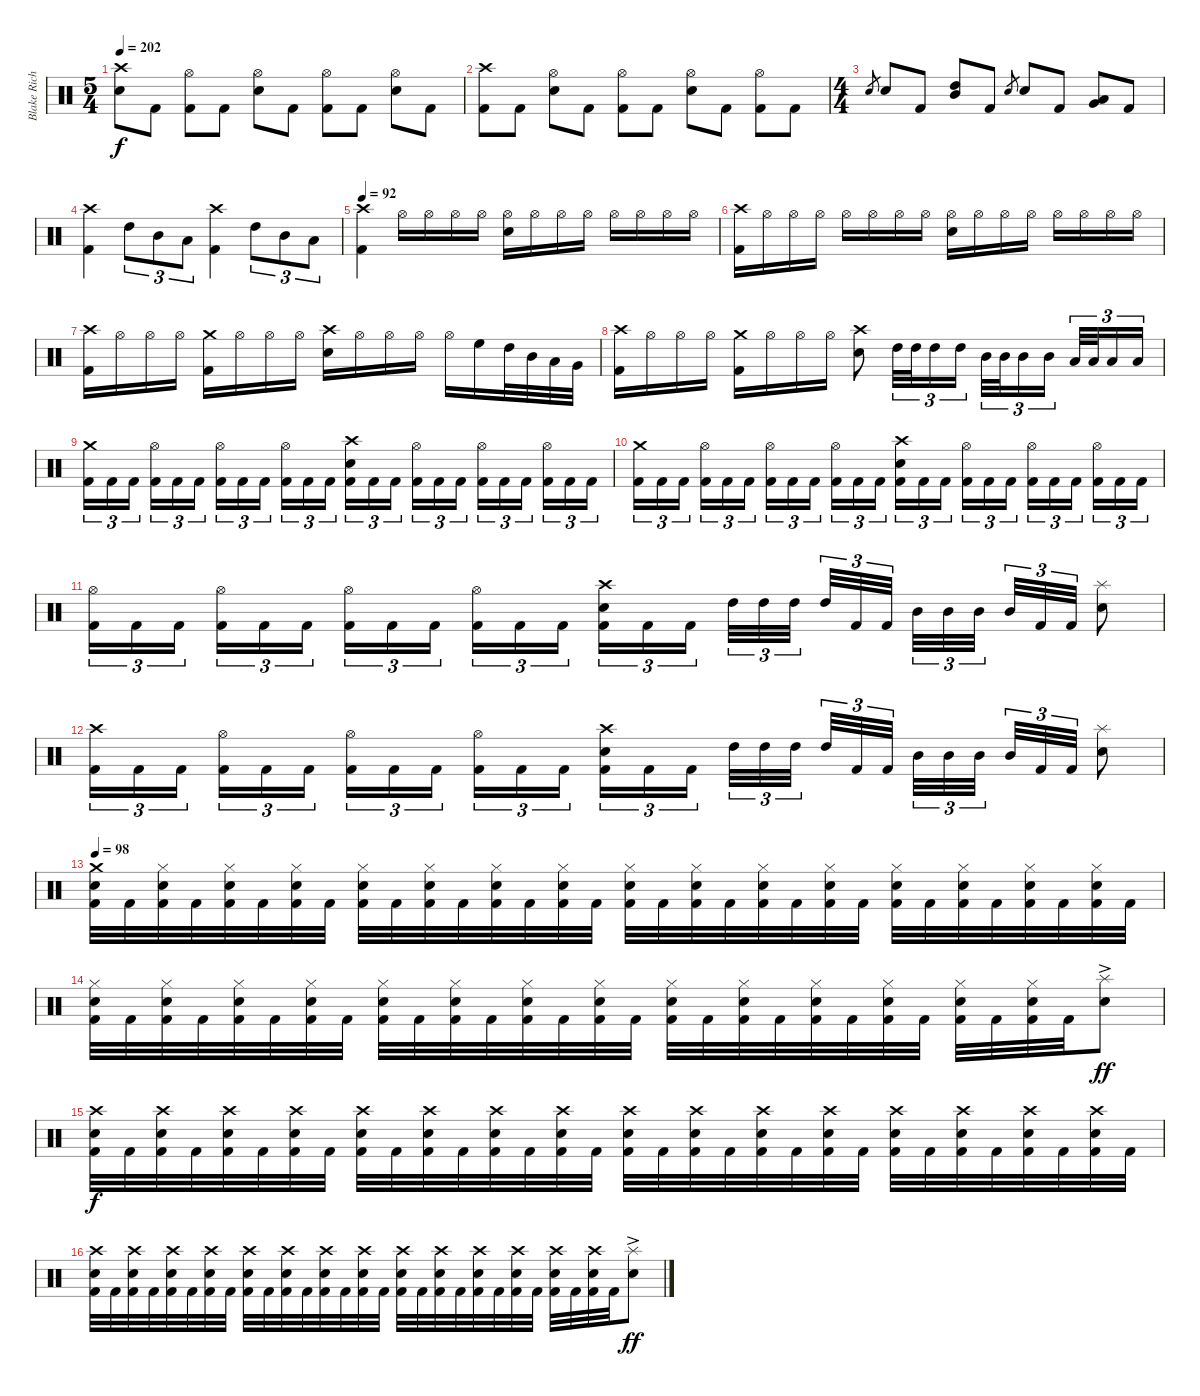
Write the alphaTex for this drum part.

\track ("Blake Richardson" "Blake Rich") {instrument percussion}
\staff {score}
\articulation defaults
\ts (5 4)
\tempo 202
\clef neutral
\ks c
("Crash high (hit)" "Electric Snare (hit)").8{dy f} "Kick (hit) 2".8{beam split} ("Hi-Hat (open)" "Kick (hit) 2").8 "Kick (hit) 2".8{beam split} ("Hi-Hat (open)" "Electric Snare (hit)").8 "Kick (hit) 2".8 ("Hi-Hat (open)" "Kick (hit) 2").8 "Kick (hit) 2".8{beam split} ("Hi-Hat (open)" "Electric Snare (hit)").8 "Kick (hit) 2".8 |
("Crash high (hit)" "Kick (hit) 2").8 "Kick (hit) 2".8{beam split} ("Hi-Hat (open)" "Electric Snare (hit)").8 "Kick (hit) 2".8{beam split} ("Hi-Hat (open)" "Kick (hit) 2").8 "Kick (hit) 2".8 ("Hi-Hat (open)" "Electric Snare (hit)").8 "Kick (hit) 2".8{beam split} ("Hi-Hat (open)" "Kick (hit) 2").8 "Kick (hit) 2".8 |
\ts (4 4)
"Electric Snare (hit)".8{gr} "Electric Snare (hit)".8 "Kick (hit) 2".8 ("High Tom (hit)" "Mid Tom (hit)").8 "Kick (hit) 2".8 "Electric Snare (hit)".8{gr} "Electric Snare (hit)".8 "Kick (hit) 2".8 ("Low Tom (hit)" "Very Low Tom (hit)").8 "Kick (hit) 2".8 |
("Crash high (hit)" "Kick (hit) 2").4 "High Tom (hit)".8{tu (3 2)} "Mid Tom (hit)".8{tu (3 2)} "Low Tom (hit)".8{tu (3 2)} ("Crash high (hit)" "Kick (hit) 2").4 "High Tom (hit)".8{tu (3 2)} "Mid Tom (hit)".8{tu (3 2)} "Low Tom (hit)".8{tu (3 2)} |
\tempo 92
("Crash high (hit)" "Kick (hit) 2").4 "Hi-Hat (open)".16 "Hi-Hat (open)".16 "Hi-Hat (open)".16 "Hi-Hat (open)".16 ("Hi-Hat (open)" "Electric Snare (hit)").16 "Hi-Hat (open)".16 "Hi-Hat (open)".16 "Hi-Hat (open)".16 "Hi-Hat (open)".16 "Hi-Hat (open)".16 "Hi-Hat (open)".16 "Hi-Hat (open)".16 |
("Crash high (hit)" "Kick (hit) 2").16 "Hi-Hat (open)".16 "Hi-Hat (open)".16 "Hi-Hat (open)".16 "Hi-Hat (open)".16 "Hi-Hat (open)".16 "Hi-Hat (open)".16 "Hi-Hat (open)".16 ("Hi-Hat (open)" "Electric Snare (hit)").16 "Hi-Hat (open)".16 "Hi-Hat (open)".16 "Hi-Hat (open)".16 "Hi-Hat (open)".16 "Hi-Hat (open)".16 "Hi-Hat (open)".16 "Hi-Hat (open)".16 |
("Crash high (hit)" "Kick (hit) 2").16 "Hi-Hat (open)".16 "Hi-Hat (open)".16 "Hi-Hat (open)".16 ("Crash medium (hit)" "Kick (hit) 2").16 "Hi-Hat (open)".16 "Hi-Hat (open)".16 "Hi-Hat (open)".16 ("Crash high (hit)" "Electric Snare (hit)").16 "Hi-Hat (open)".16 "Hi-Hat (open)".16 "Hi-Hat (open)".16 "Hi-Hat (open)".16 "High Floor Tom (hit)".16 "High Tom (hit)".32 "Mid Tom (hit)".32 "Low Tom (hit)".32 "Very Low Tom (hit)".32 |
("Crash high (hit)" "Kick (hit) 2").16 "Hi-Hat (open)".16 "Hi-Hat (open)".16 "Hi-Hat (open)".16 ("Crash medium (hit)" "Kick (hit) 2").16 "Hi-Hat (open)".16 "Hi-Hat (open)".16 "Hi-Hat (open)".16 ("Crash high (hit)" "Electric Snare (hit)").8 "High Tom (hit)".32{tu (3 2)} "High Tom (hit)".32{tu (3 2)} "High Tom (hit)".16{tu (3 2)} "High Tom (hit)".16{tu (3 2)} "Mid Tom (hit)".32{tu (3 2)} "Mid Tom (hit)".32{tu (3 2)} "Mid Tom (hit)".16{tu (3 2)} "Mid Tom (hit)".16{tu (3 2) beam splitsecondary} "Low Tom (hit)".32{tu (3 2)} "Low Tom (hit)".32{tu (3 2)} "Low Tom (hit)".16{tu (3 2)} "Low Tom (hit)".16{tu (3 2)} |
("Crash medium (hit)" "Kick (hit) 2").16{tu (3 2)} "Kick (hit) 2".16{tu (3 2)} "Kick (hit) 2".16{tu (3 2) beam splitsecondary} ("Hi-Hat (open)" "Kick (hit) 2").16{tu (3 2)} "Kick (hit) 2".16{tu (3 2)} "Kick (hit) 2".16{tu (3 2)} ("Hi-Hat (open)" "Kick (hit) 2").16{tu (3 2)} "Kick (hit) 2".16{tu (3 2)} "Kick (hit) 2".16{tu (3 2) beam splitsecondary} ("Hi-Hat (open)" "Kick (hit) 2").16{tu (3 2)} "Kick (hit) 2".16{tu (3 2)} "Kick (hit) 2".16{tu (3 2)} ("Crash high (hit)" "Electric Snare (hit)" "Kick (hit) 2").16{tu (3 2)} "Kick (hit) 2".16{tu (3 2)} "Kick (hit) 2".16{tu (3 2) beam splitsecondary} ("Hi-Hat (open)" "Kick (hit) 2").16{tu (3 2)} "Kick (hit) 2".16{tu (3 2)} "Kick (hit) 2".16{tu (3 2)} ("Hi-Hat (open)" "Kick (hit) 2").16{tu (3 2)} "Kick (hit) 2".16{tu (3 2)} "Kick (hit) 2".16{tu (3 2) beam splitsecondary} ("Hi-Hat (open)" "Kick (hit) 2").16{tu (3 2)} "Kick (hit) 2".16{tu (3 2)} "Kick (hit) 2".16{tu (3 2)} |
("Crash medium (hit)" "Kick (hit) 2").16{tu (3 2)} "Kick (hit) 2".16{tu (3 2)} "Kick (hit) 2".16{tu (3 2) beam splitsecondary} ("Hi-Hat (open)" "Kick (hit) 2").16{tu (3 2)} "Kick (hit) 2".16{tu (3 2)} "Kick (hit) 2".16{tu (3 2)} ("Hi-Hat (open)" "Kick (hit) 2").16{tu (3 2)} "Kick (hit) 2".16{tu (3 2)} "Kick (hit) 2".16{tu (3 2) beam splitsecondary} ("Hi-Hat (open)" "Kick (hit) 2").16{tu (3 2)} "Kick (hit) 2".16{tu (3 2)} "Kick (hit) 2".16{tu (3 2)} ("Crash high (hit)" "Electric Snare (hit)" "Kick (hit) 2").16{tu (3 2)} "Kick (hit) 2".16{tu (3 2)} "Kick (hit) 2".16{tu (3 2) beam splitsecondary} ("Hi-Hat (open)" "Kick (hit) 2").16{tu (3 2)} "Kick (hit) 2".16{tu (3 2)} "Kick (hit) 2".16{tu (3 2)} ("Hi-Hat (open)" "Kick (hit) 2").16{tu (3 2)} "Kick (hit) 2".16{tu (3 2)} "Kick (hit) 2".16{tu (3 2) beam splitsecondary} ("Hi-Hat (open)" "Kick (hit) 2").16{tu (3 2)} "Kick (hit) 2".16{tu (3 2)} "Kick (hit) 2".16{tu (3 2)} |
("Hi-Hat (open)" "Kick (hit) 2").16{tu (3 2)} "Kick (hit) 2".16{tu (3 2)} "Kick (hit) 2".16{tu (3 2) beam splitsecondary} ("Hi-Hat (open)" "Kick (hit) 2").16{tu (3 2)} "Kick (hit) 2".16{tu (3 2)} "Kick (hit) 2".16{tu (3 2)} ("Hi-Hat (open)" "Kick (hit) 2").16{tu (3 2)} "Kick (hit) 2".16{tu (3 2)} "Kick (hit) 2".16{tu (3 2) beam splitsecondary} ("Hi-Hat (open)" "Kick (hit) 2").16{tu (3 2)} "Kick (hit) 2".16{tu (3 2)} "Kick (hit) 2".16{tu (3 2)} ("Crash high (hit)" "Electric Snare (hit)" "Kick (hit) 2").16{tu (3 2)} "Kick (hit) 2".16{tu (3 2)} "Kick (hit) 2".16{tu (3 2) beam splitsecondary} "High Tom (hit)".32{tu (3 2)} "High Tom (hit)".32{tu (3 2)} "High Tom (hit)".32{tu (3 2) beam splitsecondary} "High Tom (hit)".32{tu (3 2)} "Kick (hit) 2".32{tu (3 2)} "Kick (hit) 2".32{tu (3 2)} "Mid Tom (hit)".32{tu (3 2)} "Mid Tom (hit)".32{tu (3 2)} "Mid Tom (hit)".32{tu (3 2) beam splitsecondary} "Mid Tom (hit)".32{tu (3 2)} "Kick (hit) 2".32{tu (3 2)} "Kick (hit) 2".32{tu (3 2)} ("Splash (hit)" "Electric Snare (hit)").8 |
("Crash high (hit)" "Kick (hit) 2").16{tu (3 2)} "Kick (hit) 2".16{tu (3 2)} "Kick (hit) 2".16{tu (3 2) beam splitsecondary} ("Hi-Hat (open)" "Kick (hit) 2").16{tu (3 2)} "Kick (hit) 2".16{tu (3 2)} "Kick (hit) 2".16{tu (3 2)} ("Hi-Hat (open)" "Kick (hit) 2").16{tu (3 2)} "Kick (hit) 2".16{tu (3 2)} "Kick (hit) 2".16{tu (3 2) beam splitsecondary} ("Hi-Hat (open)" "Kick (hit) 2").16{tu (3 2)} "Kick (hit) 2".16{tu (3 2)} "Kick (hit) 2".16{tu (3 2)} ("Crash high (hit)" "Electric Snare (hit)" "Kick (hit) 2").16{tu (3 2)} "Kick (hit) 2".16{tu (3 2)} "Kick (hit) 2".16{tu (3 2) beam splitsecondary} "High Tom (hit)".32{tu (3 2)} "High Tom (hit)".32{tu (3 2)} "High Tom (hit)".32{tu (3 2) beam splitsecondary} "High Tom (hit)".32{tu (3 2)} "Kick (hit) 2".32{tu (3 2)} "Kick (hit) 2".32{tu (3 2)} "Mid Tom (hit)".32{tu (3 2)} "Mid Tom (hit)".32{tu (3 2)} "Mid Tom (hit)".32{tu (3 2) beam splitsecondary} "Mid Tom (hit)".32{tu (3 2)} "Kick (hit) 2".32{tu (3 2)} "Kick (hit) 2".32{tu (3 2)} ("Splash (hit)" "Electric Snare (hit)").8 |
\tempo 98
("Crash medium (hit)" "Electric Snare (hit)" "Kick (hit) 2").32 "Kick (hit) 2".32 ("Hi-Hat (closed)" "Electric Snare (hit)" "Kick (hit) 2").32 "Kick (hit) 2".32 ("Hi-Hat (closed)" "Electric Snare (hit)" "Kick (hit) 2").32 "Kick (hit) 2".32 ("Hi-Hat (closed)" "Electric Snare (hit)" "Kick (hit) 2").32 "Kick (hit) 2".32 ("Hi-Hat (closed)" "Electric Snare (hit)" "Kick (hit) 2").32 "Kick (hit) 2".32 ("Hi-Hat (closed)" "Electric Snare (hit)" "Kick (hit) 2").32 "Kick (hit) 2".32 ("Hi-Hat (closed)" "Electric Snare (hit)" "Kick (hit) 2").32 "Kick (hit) 2".32 ("Hi-Hat (closed)" "Electric Snare (hit)" "Kick (hit) 2").32 "Kick (hit) 2".32 ("Hi-Hat (closed)" "Electric Snare (hit)" "Kick (hit) 2").32 "Kick (hit) 2".32 ("Hi-Hat (closed)" "Electric Snare (hit)" "Kick (hit) 2").32 "Kick (hit) 2".32 ("Hi-Hat (closed)" "Electric Snare (hit)" "Kick (hit) 2").32 "Kick (hit) 2".32 ("Hi-Hat (closed)" "Electric Snare (hit)" "Kick (hit) 2").32 "Kick (hit) 2".32 ("Hi-Hat (closed)" "Electric Snare (hit)" "Kick (hit) 2").32 "Kick (hit) 2".32 ("Hi-Hat (closed)" "Electric Snare (hit)" "Kick (hit) 2").32 "Kick (hit) 2".32 ("Hi-Hat (closed)" "Electric Snare (hit)" "Kick (hit) 2").32 "Kick (hit) 2".32 ("Hi-Hat (closed)" "Electric Snare (hit)" "Kick (hit) 2").32 "Kick (hit) 2".32 |
("Hi-Hat (closed)" "Electric Snare (hit)" "Kick (hit) 2").32 "Kick (hit) 2".32 ("Hi-Hat (closed)" "Electric Snare (hit)" "Kick (hit) 2").32 "Kick (hit) 2".32 ("Hi-Hat (closed)" "Electric Snare (hit)" "Kick (hit) 2").32 "Kick (hit) 2".32 ("Hi-Hat (closed)" "Electric Snare (hit)" "Kick (hit) 2").32 "Kick (hit) 2".32 ("Hi-Hat (closed)" "Electric Snare (hit)" "Kick (hit) 2").32 "Kick (hit) 2".32 ("Hi-Hat (closed)" "Electric Snare (hit)" "Kick (hit) 2").32 "Kick (hit) 2".32 ("Hi-Hat (closed)" "Electric Snare (hit)" "Kick (hit) 2").32 "Kick (hit) 2".32 ("Hi-Hat (closed)" "Electric Snare (hit)" "Kick (hit) 2").32 "Kick (hit) 2".32 ("Hi-Hat (closed)" "Electric Snare (hit)" "Kick (hit) 2").32 "Kick (hit) 2".32 ("Hi-Hat (closed)" "Electric Snare (hit)" "Kick (hit) 2").32 "Kick (hit) 2".32 ("Hi-Hat (closed)" "Electric Snare (hit)" "Kick (hit) 2").32 "Kick (hit) 2".32 ("Hi-Hat (closed)" "Electric Snare (hit)" "Kick (hit) 2").32 "Kick (hit) 2".32 ("Hi-Hat (closed)" "Electric Snare (hit)" "Kick (hit) 2").32 "Kick (hit) 2".32 ("Hi-Hat (closed)" "Electric Snare (hit)" "Kick (hit) 2").32 "Kick (hit) 2".32 ("Splash (hit)"{ac} "Electric Snare (hit)").8{dy ff} |
("Crash high (hit)" "Electric Snare (hit)" "Kick (hit) 2").32{dy f} "Kick (hit) 2".32 ("Crash high (hit)" "Electric Snare (hit)" "Kick (hit) 2").32 "Kick (hit) 2".32 ("Crash high (hit)" "Electric Snare (hit)" "Kick (hit) 2").32 "Kick (hit) 2".32 ("Crash high (hit)" "Electric Snare (hit)" "Kick (hit) 2").32 "Kick (hit) 2".32 ("Crash high (hit)" "Electric Snare (hit)" "Kick (hit) 2").32 "Kick (hit) 2".32 ("Crash high (hit)" "Electric Snare (hit)" "Kick (hit) 2").32 "Kick (hit) 2".32 ("Crash high (hit)" "Electric Snare (hit)" "Kick (hit) 2").32 "Kick (hit) 2".32 ("Crash high (hit)" "Electric Snare (hit)" "Kick (hit) 2").32 "Kick (hit) 2".32 ("Crash high (hit)" "Electric Snare (hit)" "Kick (hit) 2").32 "Kick (hit) 2".32 ("Crash high (hit)" "Electric Snare (hit)" "Kick (hit) 2").32 "Kick (hit) 2".32 ("Crash high (hit)" "Electric Snare (hit)" "Kick (hit) 2").32 "Kick (hit) 2".32 ("Crash high (hit)" "Electric Snare (hit)" "Kick (hit) 2").32 "Kick (hit) 2".32 ("Crash high (hit)" "Electric Snare (hit)" "Kick (hit) 2").32 "Kick (hit) 2".32 ("Crash high (hit)" "Electric Snare (hit)" "Kick (hit) 2").32 "Kick (hit) 2".32 ("Crash high (hit)" "Electric Snare (hit)" "Kick (hit) 2").32 "Kick (hit) 2".32 ("Crash high (hit)" "Electric Snare (hit)" "Kick (hit) 2").32 "Kick (hit) 2".32 |
("Crash high (hit)" "Electric Snare (hit)" "Kick (hit) 2").32 "Kick (hit) 2".32 ("Crash high (hit)" "Electric Snare (hit)" "Kick (hit) 2").32 "Kick (hit) 2".32 ("Crash high (hit)" "Electric Snare (hit)" "Kick (hit) 2").32 "Kick (hit) 2".32 ("Crash high (hit)" "Electric Snare (hit)" "Kick (hit) 2").32 "Kick (hit) 2".32 ("Crash high (hit)" "Electric Snare (hit)" "Kick (hit) 2").32 "Kick (hit) 2".32 ("Crash high (hit)" "Electric Snare (hit)" "Kick (hit) 2").32 "Kick (hit) 2".32 ("Crash high (hit)" "Electric Snare (hit)" "Kick (hit) 2").32 "Kick (hit) 2".32 ("Crash high (hit)" "Electric Snare (hit)" "Kick (hit) 2").32 "Kick (hit) 2".32 ("Crash high (hit)" "Electric Snare (hit)" "Kick (hit) 2").32 "Kick (hit) 2".32 ("Crash high (hit)" "Electric Snare (hit)" "Kick (hit) 2").32 "Kick (hit) 2".32 ("Crash high (hit)" "Electric Snare (hit)" "Kick (hit) 2").32 "Kick (hit) 2".32 ("Crash high (hit)" "Electric Snare (hit)" "Kick (hit) 2").32 "Kick (hit) 2".32 ("Crash high (hit)" "Electric Snare (hit)" "Kick (hit) 2").32 "Kick (hit) 2".32 ("Crash high (hit)" "Electric Snare (hit)" "Kick (hit) 2").32 "Kick (hit) 2".32 ("Splash (hit)"{ac} "Electric Snare (hit)").8{dy ff}
